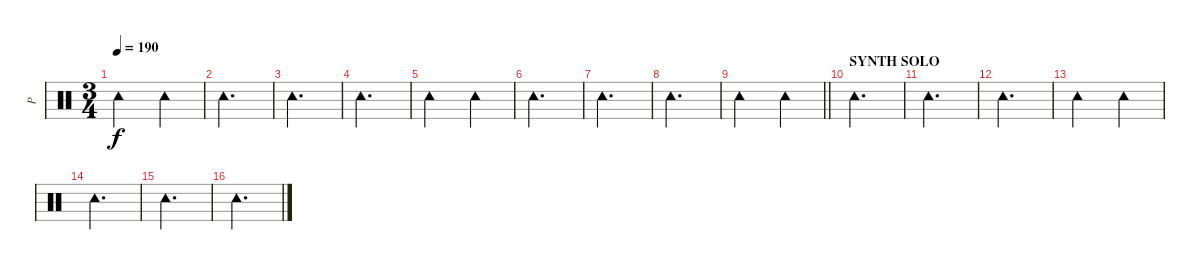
\track ("P" "P") {instrument percussion}
\staff {score}
\articulation defaults
\ts (3 4)
\tempo 190
\clef neutral
\ks c "Tambourine (hit)".2{dy f} "Tambourine (hit)".4
|
"Tambourine (hit)".2{d} |
"Tambourine (hit)".2{d} |
"Tambourine (hit)".2{d} |
"Tambourine (hit)".2 "Tambourine (hit)".4 |
"Tambourine (hit)".2{d} |
"Tambourine (hit)".2{d} |
"Tambourine (hit)".2{d} |
\barLineRight lightlight "Tambourine (hit)".2 "Tambourine (hit)".4
|
\section ("" "SYNTH SOLO")
"Tambourine (hit)".2{d} |
"Tambourine (hit)".2{d} |
"Tambourine (hit)".2{d} |
"Tambourine (hit)".2 "Tambourine (hit)".4 |
"Tambourine (hit)".2{d} |
"Tambourine (hit)".2{d} |
"Tambourine (hit)".2{d}
